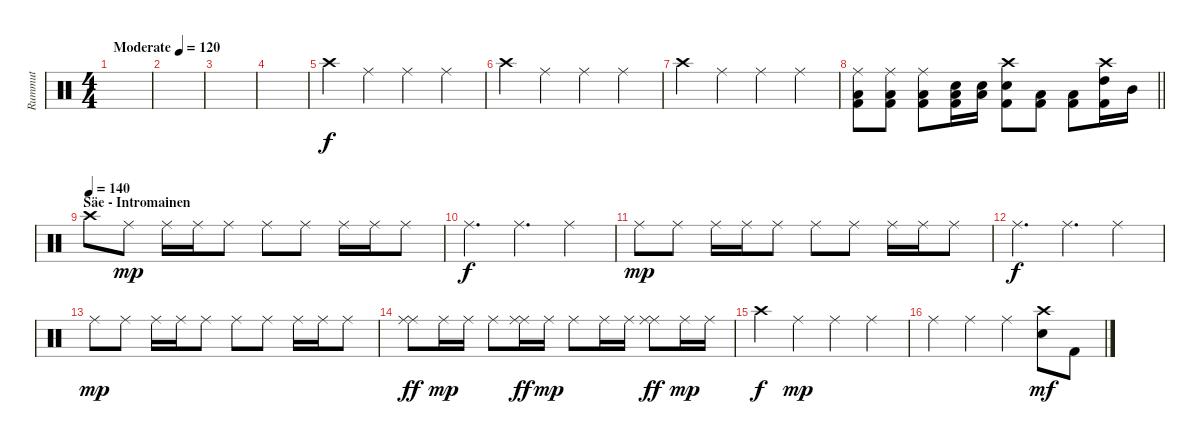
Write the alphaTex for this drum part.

\track ("Rummut" "Rummut") {instrument percussion}
\staff {score}
\articulation defaults
\ts (4 4)
\tempo (120 "Moderate")
\tempo 100
\tempo (120 "Moderate")
\clef neutral
\ks c
|
|
|
|
"Crash high (hit)".4 "Ride (middle)".4 "Ride (middle)".4 "Ride (middle)".4 |
"Crash high (hit)".4 "Ride (middle)".4 "Ride (middle)".4 "Ride (middle)".4 |
"Crash high (hit)".4 "Ride (middle)".4 "Ride (middle)".4 "Ride (middle)".4 |
\barLineRight lightlight
("Ride (middle)" "Low Floor Tom (hit)" "Kick (hit) 2").8 ("Ride (middle)" "Low Floor Tom (hit)" "Kick (hit) 2").8 ("Ride (middle)" "Low Floor Tom (hit)" "Kick (hit) 2").8 ("Snare (hit) 2" "Low Floor Tom (hit)" "Kick (hit) 2").16 ("Snare (hit) 2" "Low Floor Tom (hit)").16 ("Crash high (hit)" "Snare (hit) 2" "Kick (hit) 2").8 ("Low Floor Tom (hit)" "Kick (hit) 2").8 ("Low Floor Tom (hit)" "Kick (hit) 2").8 ("Crash high (hit)" "High Tom (hit)" "Kick (hit) 2").16 "Mid Tom (hit)".16 |
\section ("" "Säe - Intromainen")
\tempo (140)
"Crash high (hit)".8 "Ride (middle)".8{dy mp} "Ride (middle)".16 "Ride (middle)".16 "Ride (middle)".8 "Ride (middle)".8 "Ride (middle)".8 "Ride (middle)".16 "Ride (middle)".16 "Ride (middle)".8 |
"Ride (middle)".4{d dy f} "Ride (middle)".4{d} "Ride (middle)".4 |
"Ride (middle)".8{dy mp} "Ride (middle)".8 "Ride (middle)".16 "Ride (middle)".16 "Ride (middle)".8 "Ride (middle)".8 "Ride (middle)".8 "Ride (middle)".16 "Ride (middle)".16 "Ride (middle)".8 |
"Ride (middle)".4{d dy f} "Ride (middle)".4{d} "Ride (middle)".4 |
"Ride (middle)".8{dy mp} "Ride (middle)".8 "Ride (middle)".16 "Ride (middle)".16 "Ride (middle)".8 "Ride (middle)".8 "Ride (middle)".8 "Ride (middle)".16 "Ride (middle)".16 "Ride (middle)".8 |
("Ride (middle)" "Ride (middle)").8{dy ff} "Ride (middle)".16{dy mp} "Ride (middle)".16 "Ride (middle)".8 ("Ride (middle)" "Ride (middle)").16{dy ff} "Ride (middle)".16{dy mp} "Ride (middle)".8 "Ride (middle)".16 "Ride (middle)".16 ("Ride (middle)" "Ride (middle)").8{dy ff} "Ride (middle)".16{dy mp} "Ride (middle)".16 |
"Crash high (hit)".4{dy f} "Ride (middle)".4{dy mp} "Ride (middle)".4 "Ride (middle)".4 |
"Ride (middle)".4 "Ride (middle)".4 "Ride (middle)".4 ("Crash high (hit)" "Snare (hit) 2").8{dy mf} "Kick (hit) 2".8
